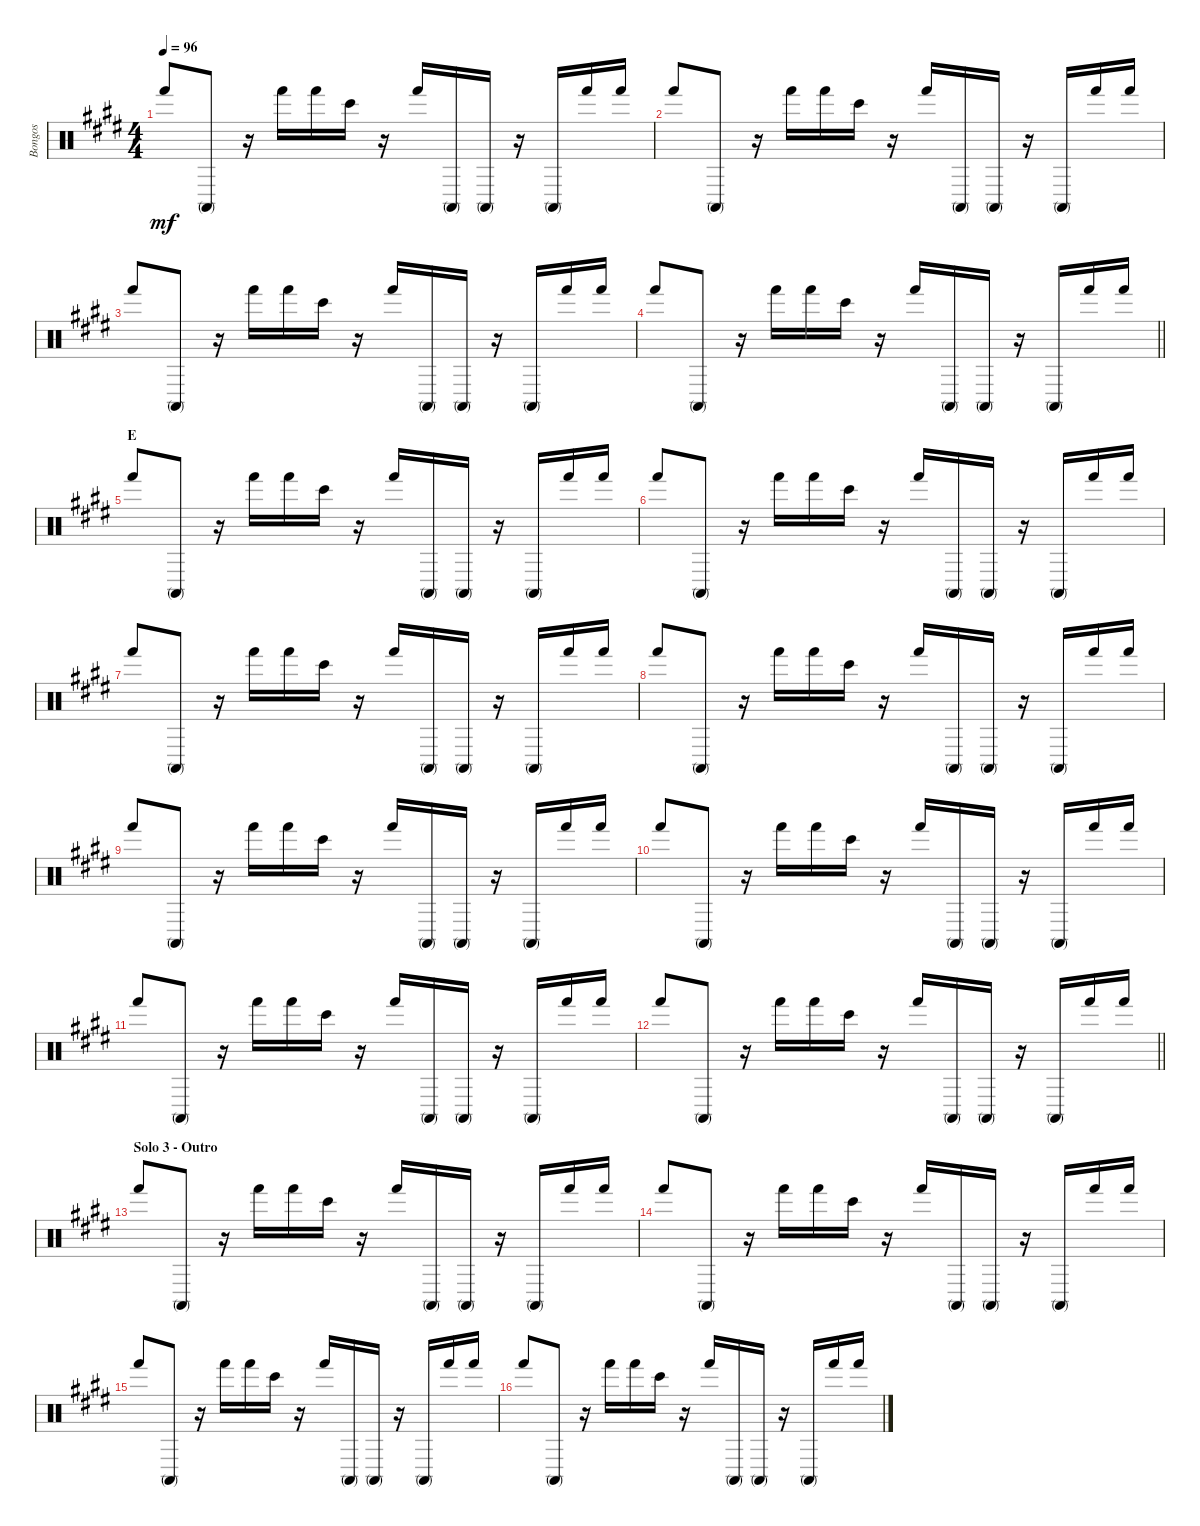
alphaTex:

\track ("Bongos" "Bongos") {instrument percussion}
\staff {score}
\articulation defaults
\ts (4 4)
\tempo 96
\clef neutral
\ks e "Hand (hit)".8{dy mf} "Conga high (mute)".8
r.16 "Hand (hit)".16 "Hand (hit)".16 "Bongo High (hit)".16 r.16 "Hand (hit)".16 "Conga high (mute)".16 "Conga high (mute)".16 r.16 "Conga high (mute)".16 "Hand (hit)".16 "Hand (hit)".16 |
"Hand (hit)".8 "Conga high (mute)".8 r.16 "Hand (hit)".16 "Hand (hit)".16 "Bongo High (hit)".16 r.16 "Hand (hit)".16 "Conga high (mute)".16 "Conga high (mute)".16 r.16 "Conga high (mute)".16 "Hand (hit)".16 "Hand (hit)".16 |
"Hand (hit)".8 "Conga high (mute)".8 r.16 "Hand (hit)".16 "Hand (hit)".16 "Bongo High (hit)".16 r.16 "Hand (hit)".16 "Conga high (mute)".16 "Conga high (mute)".16 r.16 "Conga high (mute)".16 "Hand (hit)".16 "Hand (hit)".16 |
\barLineRight lightlight "Hand (hit)".8 "Conga high (mute)".8
r.16 "Hand (hit)".16 "Hand (hit)".16 "Bongo High (hit)".16 r.16 "Hand (hit)".16 "Conga high (mute)".16 "Conga high (mute)".16 r.16 "Conga high (mute)".16 "Hand (hit)".16 "Hand (hit)".16 |
\section ("" "E")
"Hand (hit)".8 "Conga high (mute)".8 r.16 "Hand (hit)".16 "Hand (hit)".16 "Bongo High (hit)".16 r.16 "Hand (hit)".16 "Conga high (mute)".16 "Conga high (mute)".16 r.16 "Conga high (mute)".16 "Hand (hit)".16 "Hand (hit)".16 |
"Hand (hit)".8 "Conga high (mute)".8 r.16 "Hand (hit)".16 "Hand (hit)".16 "Bongo High (hit)".16 r.16 "Hand (hit)".16 "Conga high (mute)".16 "Conga high (mute)".16 r.16 "Conga high (mute)".16 "Hand (hit)".16 "Hand (hit)".16 |
"Hand (hit)".8 "Conga high (mute)".8 r.16 "Hand (hit)".16 "Hand (hit)".16 "Bongo High (hit)".16 r.16 "Hand (hit)".16 "Conga high (mute)".16 "Conga high (mute)".16 r.16 "Conga high (mute)".16 "Hand (hit)".16 "Hand (hit)".16 |
"Hand (hit)".8 "Conga high (mute)".8 r.16 "Hand (hit)".16 "Hand (hit)".16 "Bongo High (hit)".16 r.16 "Hand (hit)".16 "Conga high (mute)".16 "Conga high (mute)".16 r.16 "Conga high (mute)".16 "Hand (hit)".16 "Hand (hit)".16 |
"Hand (hit)".8 "Conga high (mute)".8 r.16 "Hand (hit)".16 "Hand (hit)".16 "Bongo High (hit)".16 r.16 "Hand (hit)".16 "Conga high (mute)".16 "Conga high (mute)".16 r.16 "Conga high (mute)".16 "Hand (hit)".16 "Hand (hit)".16 |
"Hand (hit)".8 "Conga high (mute)".8 r.16 "Hand (hit)".16 "Hand (hit)".16 "Bongo High (hit)".16 r.16 "Hand (hit)".16 "Conga high (mute)".16 "Conga high (mute)".16 r.16 "Conga high (mute)".16 "Hand (hit)".16 "Hand (hit)".16 |
"Hand (hit)".8 "Conga high (mute)".8 r.16 "Hand (hit)".16 "Hand (hit)".16 "Bongo High (hit)".16 r.16 "Hand (hit)".16 "Conga high (mute)".16 "Conga high (mute)".16 r.16 "Conga high (mute)".16 "Hand (hit)".16 "Hand (hit)".16 |
\barLineRight lightlight "Hand (hit)".8 "Conga high (mute)".8
r.16 "Hand (hit)".16 "Hand (hit)".16 "Bongo High (hit)".16 r.16 "Hand (hit)".16 "Conga high (mute)".16 "Conga high (mute)".16 r.16 "Conga high (mute)".16 "Hand (hit)".16 "Hand (hit)".16 |
\section ("" "Solo 3 - Outro")
"Hand (hit)".8 "Conga high (mute)".8 r.16 "Hand (hit)".16 "Hand (hit)".16 "Bongo High (hit)".16 r.16 "Hand (hit)".16 "Conga high (mute)".16 "Conga high (mute)".16 r.16 "Conga high (mute)".16 "Hand (hit)".16 "Hand (hit)".16 |
"Hand (hit)".8 "Conga high (mute)".8 r.16 "Hand (hit)".16 "Hand (hit)".16 "Bongo High (hit)".16 r.16 "Hand (hit)".16 "Conga high (mute)".16 "Conga high (mute)".16 r.16 "Conga high (mute)".16 "Hand (hit)".16 "Hand (hit)".16 |
"Hand (hit)".8 "Conga high (mute)".8 r.16 "Hand (hit)".16 "Hand (hit)".16 "Bongo High (hit)".16 r.16 "Hand (hit)".16 "Conga high (mute)".16 "Conga high (mute)".16 r.16 "Conga high (mute)".16 "Hand (hit)".16 "Hand (hit)".16 |
"Hand (hit)".8 "Conga high (mute)".8 r.16 "Hand (hit)".16 "Hand (hit)".16 "Bongo High (hit)".16 r.16 "Hand (hit)".16 "Conga high (mute)".16 "Conga high (mute)".16 r.16 "Conga high (mute)".16 "Hand (hit)".16 "Hand (hit)".16
